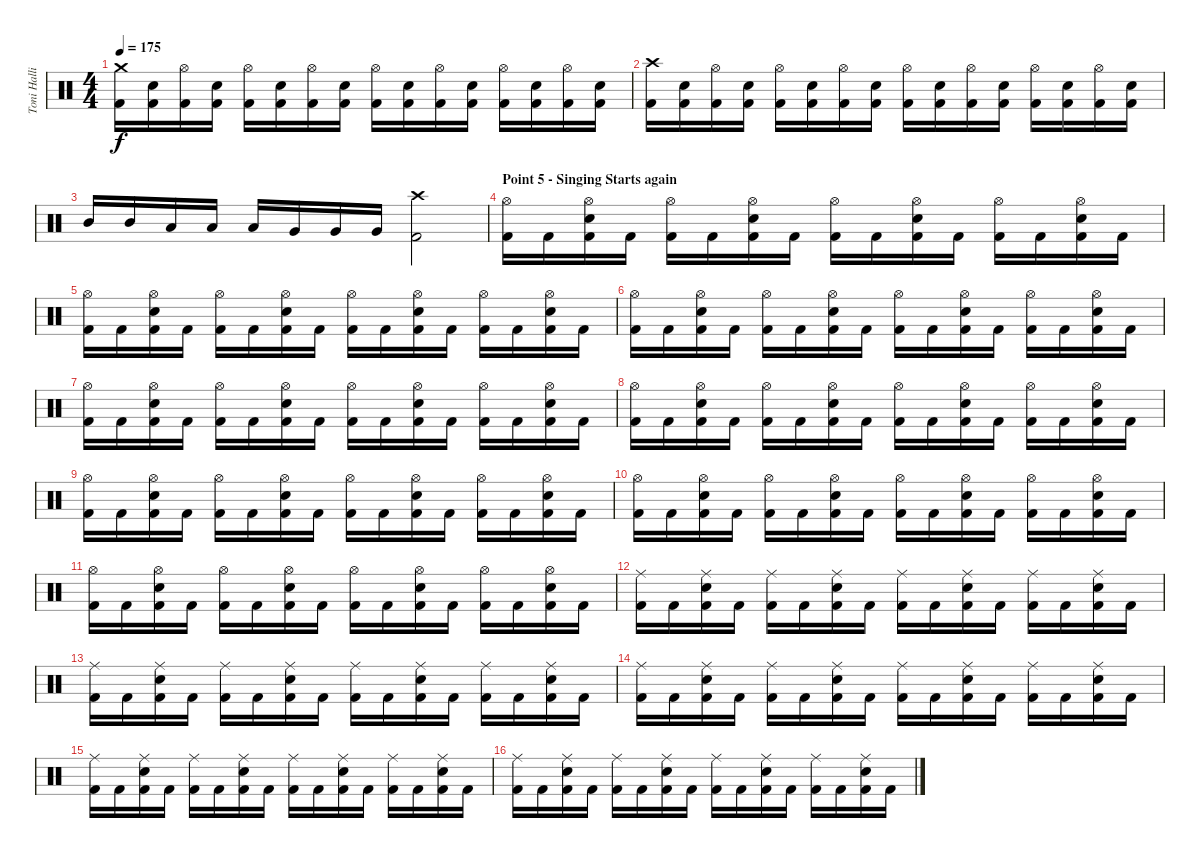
\track ("Toni Hallio" "Toni Halli") {instrument percussion}
\staff {score}
\articulation defaults
\ts (4 4)
\tempo 175
\clef neutral
\ks c
("Crash medium (hit)" "Kick (hit) 2").16{dy f} ("Snare (hit) 2" "Kick (hit) 2").16 ("Hi-Hat (open)" "Kick (hit) 2").16 ("Snare (hit) 2" "Kick (hit) 2").16 ("Hi-Hat (open)" "Kick (hit) 2").16 ("Snare (hit) 2" "Kick (hit) 2").16 ("Hi-Hat (open)" "Kick (hit) 2").16 ("Snare (hit) 2" "Kick (hit) 2").16 ("Hi-Hat (open)" "Kick (hit) 2").16 ("Snare (hit) 2" "Kick (hit) 2").16 ("Hi-Hat (open)" "Kick (hit) 2").16 ("Snare (hit) 2" "Kick (hit) 2").16 ("Hi-Hat (open)" "Kick (hit) 2").16 ("Snare (hit) 2" "Kick (hit) 2").16 ("Hi-Hat (open)" "Kick (hit) 2").16 ("Snare (hit) 2" "Kick (hit) 2").16 |
("Crash high (hit)" "Kick (hit) 2").16 ("Snare (hit) 2" "Kick (hit) 2").16 ("Hi-Hat (open)" "Kick (hit) 2").16 ("Snare (hit) 2" "Kick (hit) 2").16 ("Hi-Hat (open)" "Kick (hit) 2").16 ("Snare (hit) 2" "Kick (hit) 2").16 ("Hi-Hat (open)" "Kick (hit) 2").16 ("Snare (hit) 2" "Kick (hit) 2").16 ("Hi-Hat (open)" "Kick (hit) 2").16 ("Snare (hit) 2" "Kick (hit) 2").16 ("Hi-Hat (open)" "Kick (hit) 2").16 ("Snare (hit) 2" "Kick (hit) 2").16 ("Hi-Hat (open)" "Kick (hit) 2").16 ("Snare (hit) 2" "Kick (hit) 2").16 ("Hi-Hat (open)" "Kick (hit) 2").16 ("Snare (hit) 2" "Kick (hit) 2").16 |
"Mid Tom (hit)".16 "Mid Tom (hit)".16 "Low Tom (hit)".16 "Low Tom (hit)".16 "Low Tom (hit)".16 "Very Low Tom (hit)".16 "Very Low Tom (hit)".16 "Very Low Tom (hit)".16 ("Crash high (hit)" "Kick (hit) 2").2 |
\section ("" "Point 5 - Singing Starts again")
("Hi-Hat (open)" "Kick (hit) 2").16 "Kick (hit) 2".16 ("Hi-Hat (open)" "Snare (hit) 2" "Kick (hit) 2").16 "Kick (hit) 2".16 ("Hi-Hat (open)" "Kick (hit) 2").16 "Kick (hit) 2".16 ("Hi-Hat (open)" "Snare (hit) 2" "Kick (hit) 2").16 "Kick (hit) 2".16 ("Hi-Hat (open)" "Kick (hit) 2").16 "Kick (hit) 2".16 ("Hi-Hat (open)" "Snare (hit) 2" "Kick (hit) 2").16 "Kick (hit) 2".16 ("Hi-Hat (open)" "Kick (hit) 2").16 "Kick (hit) 2".16 ("Hi-Hat (open)" "Snare (hit) 2" "Kick (hit) 2").16 "Kick (hit) 2".16 |
("Hi-Hat (open)" "Kick (hit) 2").16 "Kick (hit) 2".16 ("Hi-Hat (open)" "Snare (hit) 2" "Kick (hit) 2").16 "Kick (hit) 2".16 ("Hi-Hat (open)" "Kick (hit) 2").16 "Kick (hit) 2".16 ("Hi-Hat (open)" "Snare (hit) 2" "Kick (hit) 2").16 "Kick (hit) 2".16 ("Hi-Hat (open)" "Kick (hit) 2").16 "Kick (hit) 2".16 ("Hi-Hat (open)" "Snare (hit) 2" "Kick (hit) 2").16 "Kick (hit) 2".16 ("Hi-Hat (open)" "Kick (hit) 2").16 "Kick (hit) 2".16 ("Hi-Hat (open)" "Snare (hit) 2" "Kick (hit) 2").16 "Kick (hit) 2".16 |
("Hi-Hat (open)" "Kick (hit) 2").16 "Kick (hit) 2".16 ("Hi-Hat (open)" "Snare (hit) 2" "Kick (hit) 2").16 "Kick (hit) 2".16 ("Hi-Hat (open)" "Kick (hit) 2").16 "Kick (hit) 2".16 ("Hi-Hat (open)" "Snare (hit) 2" "Kick (hit) 2").16 "Kick (hit) 2".16 ("Hi-Hat (open)" "Kick (hit) 2").16 "Kick (hit) 2".16 ("Hi-Hat (open)" "Snare (hit) 2" "Kick (hit) 2").16 "Kick (hit) 2".16 ("Hi-Hat (open)" "Kick (hit) 2").16 "Kick (hit) 2".16 ("Hi-Hat (open)" "Snare (hit) 2" "Kick (hit) 2").16 "Kick (hit) 2".16 |
("Hi-Hat (open)" "Kick (hit) 2").16 "Kick (hit) 2".16 ("Hi-Hat (open)" "Snare (hit) 2" "Kick (hit) 2").16 "Kick (hit) 2".16 ("Hi-Hat (open)" "Kick (hit) 2").16 "Kick (hit) 2".16 ("Hi-Hat (open)" "Snare (hit) 2" "Kick (hit) 2").16 "Kick (hit) 2".16 ("Hi-Hat (open)" "Kick (hit) 2").16 "Kick (hit) 2".16 ("Hi-Hat (open)" "Snare (hit) 2" "Kick (hit) 2").16 "Kick (hit) 2".16 ("Hi-Hat (open)" "Kick (hit) 2").16 "Kick (hit) 2".16 ("Hi-Hat (open)" "Snare (hit) 2" "Kick (hit) 2").16 "Kick (hit) 2".16 |
("Hi-Hat (open)" "Kick (hit) 2").16 "Kick (hit) 2".16 ("Hi-Hat (open)" "Snare (hit) 2" "Kick (hit) 2").16 "Kick (hit) 2".16 ("Hi-Hat (open)" "Kick (hit) 2").16 "Kick (hit) 2".16 ("Hi-Hat (open)" "Snare (hit) 2" "Kick (hit) 2").16 "Kick (hit) 2".16 ("Hi-Hat (open)" "Kick (hit) 2").16 "Kick (hit) 2".16 ("Hi-Hat (open)" "Snare (hit) 2" "Kick (hit) 2").16 "Kick (hit) 2".16 ("Hi-Hat (open)" "Kick (hit) 2").16 "Kick (hit) 2".16 ("Hi-Hat (open)" "Snare (hit) 2" "Kick (hit) 2").16 "Kick (hit) 2".16 |
("Hi-Hat (open)" "Kick (hit) 2").16 "Kick (hit) 2".16 ("Hi-Hat (open)" "Snare (hit) 2" "Kick (hit) 2").16 "Kick (hit) 2".16 ("Hi-Hat (open)" "Kick (hit) 2").16 "Kick (hit) 2".16 ("Hi-Hat (open)" "Snare (hit) 2" "Kick (hit) 2").16 "Kick (hit) 2".16 ("Hi-Hat (open)" "Kick (hit) 2").16 "Kick (hit) 2".16 ("Hi-Hat (open)" "Snare (hit) 2" "Kick (hit) 2").16 "Kick (hit) 2".16 ("Hi-Hat (open)" "Kick (hit) 2").16 "Kick (hit) 2".16 ("Hi-Hat (open)" "Snare (hit) 2" "Kick (hit) 2").16 "Kick (hit) 2".16 |
("Hi-Hat (open)" "Kick (hit) 2").16 "Kick (hit) 2".16 ("Hi-Hat (open)" "Snare (hit) 2" "Kick (hit) 2").16 "Kick (hit) 2".16 ("Hi-Hat (open)" "Kick (hit) 2").16 "Kick (hit) 2".16 ("Hi-Hat (open)" "Snare (hit) 2" "Kick (hit) 2").16 "Kick (hit) 2".16 ("Hi-Hat (open)" "Kick (hit) 2").16 "Kick (hit) 2".16 ("Hi-Hat (open)" "Snare (hit) 2" "Kick (hit) 2").16 "Kick (hit) 2".16 ("Hi-Hat (open)" "Kick (hit) 2").16 "Kick (hit) 2".16 ("Hi-Hat (open)" "Snare (hit) 2" "Kick (hit) 2").16 "Kick (hit) 2".16 |
("Hi-Hat (open)" "Kick (hit) 2").16 "Kick (hit) 2".16 ("Hi-Hat (open)" "Snare (hit) 2" "Kick (hit) 2").16 "Kick (hit) 2".16 ("Hi-Hat (open)" "Kick (hit) 2").16 "Kick (hit) 2".16 ("Hi-Hat (open)" "Snare (hit) 2" "Kick (hit) 2").16 "Kick (hit) 2".16 ("Hi-Hat (open)" "Kick (hit) 2").16 "Kick (hit) 2".16 ("Hi-Hat (open)" "Snare (hit) 2" "Kick (hit) 2").16 "Kick (hit) 2".16 ("Hi-Hat (open)" "Kick (hit) 2").16 "Kick (hit) 2".16 ("Hi-Hat (open)" "Snare (hit) 2" "Kick (hit) 2").16 "Kick (hit) 2".16 |
("Ride (middle)" "Kick (hit) 2").16 "Kick (hit) 2".16 ("Ride (middle)" "Snare (hit) 2" "Kick (hit) 2").16 "Kick (hit) 2".16 ("Ride (middle)" "Kick (hit) 2").16 "Kick (hit) 2".16 ("Ride (middle)" "Snare (hit) 2" "Kick (hit) 2").16 "Kick (hit) 2".16 ("Ride (middle)" "Kick (hit) 2").16 "Kick (hit) 2".16 ("Ride (middle)" "Snare (hit) 2" "Kick (hit) 2").16 "Kick (hit) 2".16 ("Ride (middle)" "Kick (hit) 2").16 "Kick (hit) 2".16 ("Ride (middle)" "Snare (hit) 2" "Kick (hit) 2").16 "Kick (hit) 2".16 |
("Ride (middle)" "Kick (hit) 2").16 "Kick (hit) 2".16 ("Ride (middle)" "Snare (hit) 2" "Kick (hit) 2").16 "Kick (hit) 2".16 ("Ride (middle)" "Kick (hit) 2").16 "Kick (hit) 2".16 ("Ride (middle)" "Snare (hit) 2" "Kick (hit) 2").16 "Kick (hit) 2".16 ("Ride (middle)" "Kick (hit) 2").16 "Kick (hit) 2".16 ("Ride (middle)" "Snare (hit) 2" "Kick (hit) 2").16 "Kick (hit) 2".16 ("Ride (middle)" "Kick (hit) 2").16 "Kick (hit) 2".16 ("Ride (middle)" "Snare (hit) 2" "Kick (hit) 2").16 "Kick (hit) 2".16 |
("Ride (middle)" "Kick (hit) 2").16 "Kick (hit) 2".16 ("Ride (middle)" "Snare (hit) 2" "Kick (hit) 2").16 "Kick (hit) 2".16 ("Ride (middle)" "Kick (hit) 2").16 "Kick (hit) 2".16 ("Ride (middle)" "Snare (hit) 2" "Kick (hit) 2").16 "Kick (hit) 2".16 ("Ride (middle)" "Kick (hit) 2").16 "Kick (hit) 2".16 ("Ride (middle)" "Snare (hit) 2" "Kick (hit) 2").16 "Kick (hit) 2".16 ("Ride (middle)" "Kick (hit) 2").16 "Kick (hit) 2".16 ("Ride (middle)" "Snare (hit) 2" "Kick (hit) 2").16 "Kick (hit) 2".16 |
("Ride (middle)" "Kick (hit) 2").16 "Kick (hit) 2".16 ("Ride (middle)" "Snare (hit) 2" "Kick (hit) 2").16 "Kick (hit) 2".16 ("Ride (middle)" "Kick (hit) 2").16 "Kick (hit) 2".16 ("Ride (middle)" "Snare (hit) 2" "Kick (hit) 2").16 "Kick (hit) 2".16 ("Ride (middle)" "Kick (hit) 2").16 "Kick (hit) 2".16 ("Ride (middle)" "Snare (hit) 2" "Kick (hit) 2").16 "Kick (hit) 2".16 ("Ride (middle)" "Kick (hit) 2").16 "Kick (hit) 2".16 ("Ride (middle)" "Snare (hit) 2" "Kick (hit) 2").16 "Kick (hit) 2".16 |
("Ride (middle)" "Kick (hit) 2").16 "Kick (hit) 2".16 ("Ride (middle)" "Snare (hit) 2" "Kick (hit) 2").16 "Kick (hit) 2".16 ("Ride (middle)" "Kick (hit) 2").16 "Kick (hit) 2".16 ("Ride (middle)" "Snare (hit) 2" "Kick (hit) 2").16 "Kick (hit) 2".16 ("Ride (middle)" "Kick (hit) 2").16 "Kick (hit) 2".16 ("Ride (middle)" "Snare (hit) 2" "Kick (hit) 2").16 "Kick (hit) 2".16 ("Ride (middle)" "Kick (hit) 2").16 "Kick (hit) 2".16 ("Ride (middle)" "Snare (hit) 2" "Kick (hit) 2").16 "Kick (hit) 2".16
